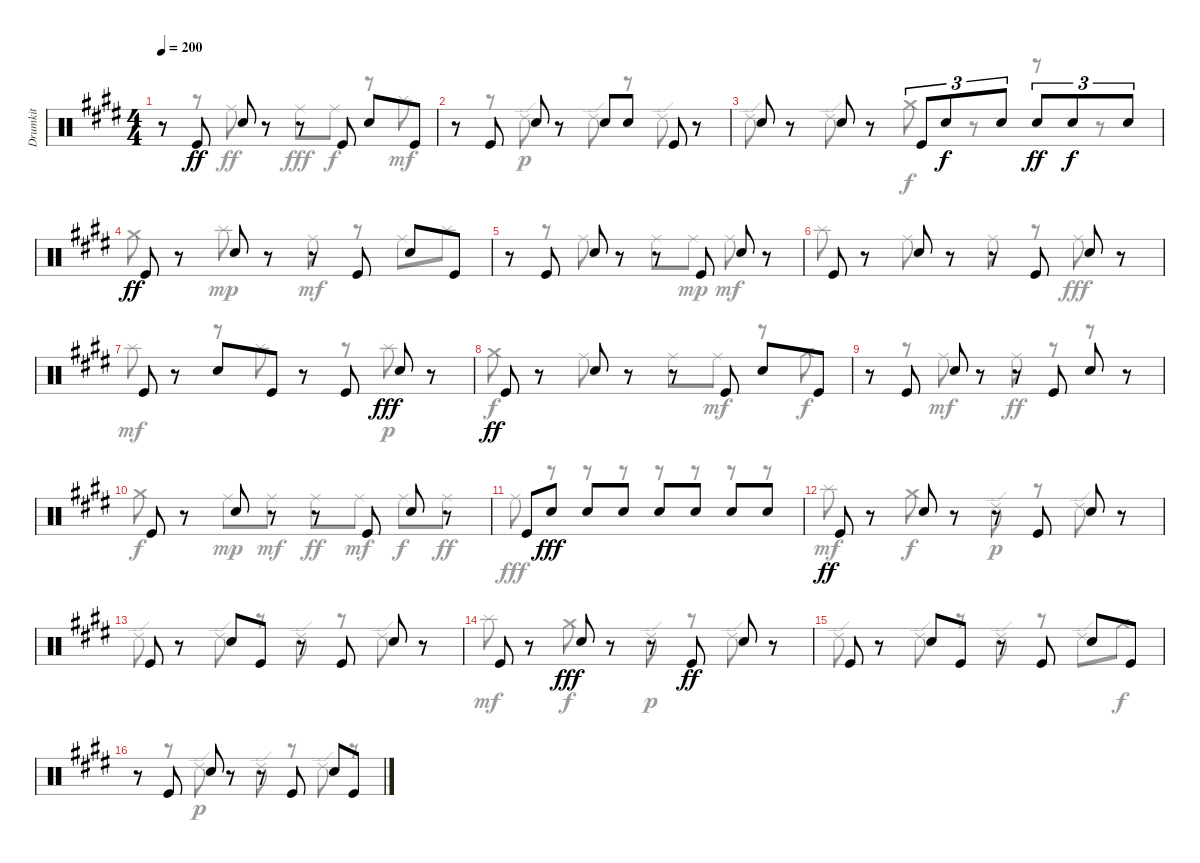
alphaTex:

\track ("Drumkit" "Drumkit") {instrument percussion}
\staff {score}
\articulation defaults
\voice
\ts (4 4)
\tempo 200
\clef neutral
\ks c#minor
r.8{dy ff} "Kick (hit)".8 "Snare (hit) 2".8 r.8 r.8 "Kick (hit)".8 "Snare (hit) 2".8 "Kick (hit)".8 |
r.8 "Kick (hit)".8 "Snare (hit) 2".8 r.8 "Snare (hit) 2".8 "Snare (hit) 2".8 "Kick (hit)".8 r.8 |
"Snare (hit) 2".8 r.8 "Snare (hit) 2".8 r.8 "Kick (hit)".8{tu (3 2)} "Snare (hit) 2".8{tu (3 2) dy f} "Snare (hit) 2".8{tu (3 2)} "Snare (hit) 2".8{tu (3 2) dy ff} "Snare (hit) 2".8{tu (3 2) dy f} "Snare (hit) 2".8{tu (3 2)} |
"Kick (hit)".8{dy ff} r.8 "Snare (hit) 2".8 r.8 r.8 "Kick (hit)".8 "Snare (hit) 2".8 "Kick (hit)".8 |
r.8 "Kick (hit)".8 "Snare (hit) 2".8 r.8 r.8 "Kick (hit)".8 "Snare (hit) 2".8 r.8 |
"Kick (hit)".8 r.8 "Snare (hit) 2".8 r.8 r.8 "Kick (hit)".8 "Snare (hit) 2".8 r.8 |
"Kick (hit)".8 r.8 "Snare (hit) 2".8 "Kick (hit)".8 r.8 "Kick (hit)".8 "Snare (hit) 2".8{dy fff} r.8 |
"Kick (hit)".8{dy ff} r.8 "Snare (hit) 2".8 r.8 r.8 "Kick (hit)".8 "Snare (hit) 2".8 "Kick (hit)".8 |
r.8 "Kick (hit)".8 "Snare (hit) 2".8 r.8 r.8 "Kick (hit)".8 "Snare (hit) 2".8 r.8 |
"Kick (hit)".8 r.8 "Snare (hit) 2".8 r.8 r.8 "Kick (hit)".8 "Snare (hit) 2".8 r.8 |
"Kick (hit)".8 "Snare (hit) 2".8{dy fff} "Snare (hit) 2".8 "Snare (hit) 2".8 "Snare (hit) 2".8 "Snare (hit) 2".8 "Snare (hit) 2".8 "Snare (hit) 2".8 |
"Kick (hit)".8{dy ff} r.8 "Snare (hit) 2".8 r.8 r.8 "Kick (hit)".8 "Snare (hit) 2".8 r.8 |
"Kick (hit)".8 r.8 "Snare (hit) 2".8 "Kick (hit)".8 r.8 "Kick (hit)".8 "Snare (hit) 2".8 r.8 |
"Kick (hit)".8 r.8 "Snare (hit) 2".8{dy fff} r.8 r.8 "Kick (hit)".8{dy ff} "Snare (hit) 2".8 r.8 |
"Kick (hit)".8 r.8 "Snare (hit) 2".8 "Kick (hit)".8 r.8 "Kick (hit)".8 "Snare (hit) 2".8 "Kick (hit)".8 |
r.8 "Kick (hit)".8 "Snare (hit) 2".8 r.8 r.8 "Kick (hit)".8 "Snare (hit) 2".8 "Kick (hit)".8
\voice
\clef neutral
\ottava regular
\simile none
\ks c#minor
r.8{dy mf} r.8 "Ride (middle)".8{dy ff} r.8 "Ride (middle)".8{dy fff} "Ride (middle)".8{dy f} r.8 "Splash (hit)".8{dy mf} |
r.8 r.8 "Ride (edge) 2".8{dy p} r.8 "Ride (edge) 2".8 r.8 "Ride (edge) 2".8 r.8 |
"Ride (edge) 2".8 r.8 "Ride (edge) 2".8 r.8 "Crash medium (hit)".8{dy f} r.8 r.8 r.8 |
"Crash medium (hit)".8 r.8 "Splash (hit)".8{dy mp} r.8 "Ride (middle)".8{dy mf} r.8 "Ride (middle)".8 "Splash (hit)".8 |
r.8 r.8 "Ride (middle)".8 r.8 "Ride (middle)".8 "Ride (middle)".8{dy mp} "Ride (middle)".8{dy mf} r.8 |
"Splash (hit)".8 r.8 "Ride (middle)".8 r.8 "Ride (middle)".8 r.8 "Ride (middle)".8{dy fff} r.8 |
"Splash (hit)".8{dy mf} r.8 r.8 "Splash (hit)".8 r.8 r.8 "Splash (hit)".8{dy p} r.8 |
"Crash medium (hit)".8{dy f} r.8 "Ride (middle)".8 r.8 "Ride (middle)".8 "Ride (middle)".8{dy mf} r.8 "Crash medium (hit)".8{dy f} |
r.8 r.8 "Ride (middle)".8{dy mf} r.8 "Ride (middle)".8{dy ff} r.8 r.8 r.8 |
"Crash medium (hit)".8{dy f} r.8 "Ride (middle)".8{dy mp} "Ride (middle)".8{dy mf} "Ride (middle)".8{dy ff} "Ride (middle)".8{dy mf} "Ride (middle)".8{dy f} "Ride (middle)".8{dy ff} |
"Ride (middle)".8{dy fff} r.8 r.8 r.8 r.8 r.8 r.8 r.8 |
"Splash (hit)".8{dy mf} r.8 "Crash medium (hit)".8{dy f} r.8 "Ride (edge) 2".8{dy p} r.8 "Ride (edge) 2".8 r.8 |
"Ride (edge) 2".8 r.8 "Ride (edge) 2".8 r.8 "Ride (edge) 2".8 r.8 "Ride (edge) 2".8 r.8 |
"Splash (hit)".8{dy mf} r.8 "Crash medium (hit)".8{dy f} r.8 "Ride (edge) 2".8{dy p} r.8 "Ride (edge) 2".8 r.8 |
"Ride (edge) 2".8 r.8 "Ride (edge) 2".8 r.8 "Ride (edge) 2".8 r.8 "Ride (edge) 2".8 "Crash medium (hit)".8{dy f} |
r.8 r.8 "Ride (edge) 2".8{dy p} r.8 "Ride (edge) 2".8 r.8 "Ride (edge) 2".8 r.8
